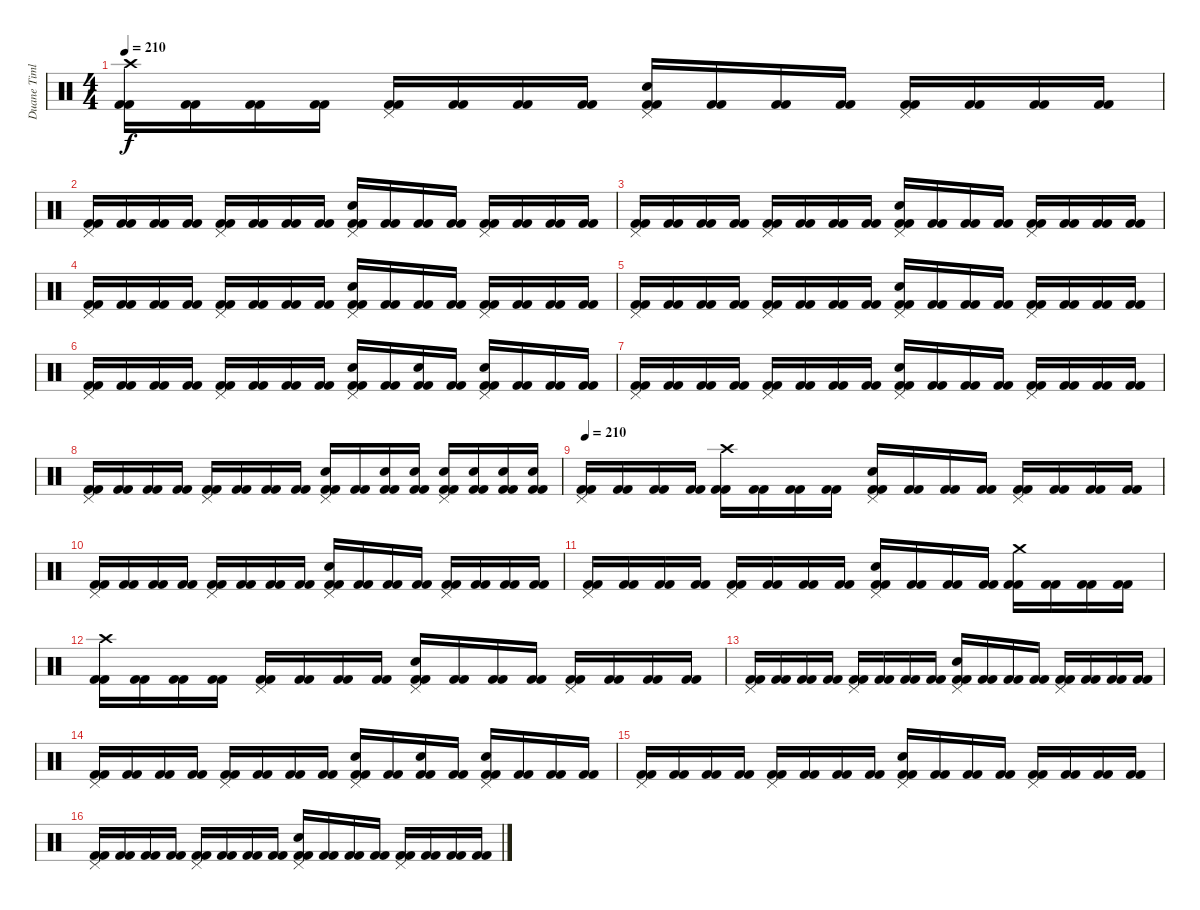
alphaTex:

\track ("Duane Timlin" "Duane Timl") {instrument percussion}
\staff {score}
\articulation defaults
\ts (4 4)
\tempo 210
\clef neutral
\ks c
("Crash high (hit)" "Kick (hit) 2" "Kick (hit) 2").16{dy f} ("Kick (hit) 2" "Kick (hit) 2").16 ("Kick (hit) 2" "Kick (hit) 2").16 ("Kick (hit) 2" "Kick (hit) 2").16 ("Pedal Hi-Hat (hit)" "Kick (hit) 2" "Kick (hit) 2").16 ("Kick (hit) 2" "Kick (hit) 2").16 ("Kick (hit) 2" "Kick (hit) 2").16 ("Kick (hit) 2" "Kick (hit) 2").16 ("Pedal Hi-Hat (hit)" "Electric Snare (hit)" "Kick (hit) 2" "Kick (hit) 2").16 ("Kick (hit) 2" "Kick (hit) 2").16 ("Kick (hit) 2" "Kick (hit) 2").16 ("Kick (hit) 2" "Kick (hit) 2").16 ("Pedal Hi-Hat (hit)" "Kick (hit) 2" "Kick (hit) 2").16 ("Kick (hit) 2" "Kick (hit) 2").16 ("Kick (hit) 2" "Kick (hit) 2").16 ("Kick (hit) 2" "Kick (hit) 2").16 |
("Pedal Hi-Hat (hit)" "Kick (hit) 2" "Kick (hit) 2").16 ("Kick (hit) 2" "Kick (hit) 2").16 ("Kick (hit) 2" "Kick (hit) 2").16 ("Kick (hit) 2" "Kick (hit) 2").16 ("Pedal Hi-Hat (hit)" "Kick (hit) 2" "Kick (hit) 2").16 ("Kick (hit) 2" "Kick (hit) 2").16 ("Kick (hit) 2" "Kick (hit) 2").16 ("Kick (hit) 2" "Kick (hit) 2").16 ("Pedal Hi-Hat (hit)" "Electric Snare (hit)" "Kick (hit) 2" "Kick (hit) 2").16 ("Kick (hit) 2" "Kick (hit) 2").16 ("Kick (hit) 2" "Kick (hit) 2").16 ("Kick (hit) 2" "Kick (hit) 2").16 ("Pedal Hi-Hat (hit)" "Kick (hit) 2" "Kick (hit) 2").16 ("Kick (hit) 2" "Kick (hit) 2").16 ("Kick (hit) 2" "Kick (hit) 2").16 ("Kick (hit) 2" "Kick (hit) 2").16 |
("Pedal Hi-Hat (hit)" "Kick (hit) 2" "Kick (hit) 2").16 ("Kick (hit) 2" "Kick (hit) 2").16 ("Kick (hit) 2" "Kick (hit) 2").16 ("Kick (hit) 2" "Kick (hit) 2").16 ("Pedal Hi-Hat (hit)" "Kick (hit) 2" "Kick (hit) 2").16 ("Kick (hit) 2" "Kick (hit) 2").16 ("Kick (hit) 2" "Kick (hit) 2").16 ("Kick (hit) 2" "Kick (hit) 2").16 ("Pedal Hi-Hat (hit)" "Electric Snare (hit)" "Kick (hit) 2" "Kick (hit) 2").16 ("Kick (hit) 2" "Kick (hit) 2").16 ("Kick (hit) 2" "Kick (hit) 2").16 ("Kick (hit) 2" "Kick (hit) 2").16 ("Pedal Hi-Hat (hit)" "Kick (hit) 2" "Kick (hit) 2").16 ("Kick (hit) 2" "Kick (hit) 2").16 ("Kick (hit) 2" "Kick (hit) 2").16 ("Kick (hit) 2" "Kick (hit) 2").16 |
("Pedal Hi-Hat (hit)" "Kick (hit) 2" "Kick (hit) 2").16 ("Kick (hit) 2" "Kick (hit) 2").16 ("Kick (hit) 2" "Kick (hit) 2").16 ("Kick (hit) 2" "Kick (hit) 2").16 ("Pedal Hi-Hat (hit)" "Kick (hit) 2" "Kick (hit) 2").16 ("Kick (hit) 2" "Kick (hit) 2").16 ("Kick (hit) 2" "Kick (hit) 2").16 ("Kick (hit) 2" "Kick (hit) 2").16 ("Pedal Hi-Hat (hit)" "Electric Snare (hit)" "Kick (hit) 2" "Kick (hit) 2").16 ("Kick (hit) 2" "Kick (hit) 2").16 ("Kick (hit) 2" "Kick (hit) 2").16 ("Kick (hit) 2" "Kick (hit) 2").16 ("Pedal Hi-Hat (hit)" "Kick (hit) 2" "Kick (hit) 2").16 ("Kick (hit) 2" "Kick (hit) 2").16 ("Kick (hit) 2" "Kick (hit) 2").16 ("Kick (hit) 2" "Kick (hit) 2").16 |
("Pedal Hi-Hat (hit)" "Kick (hit) 2" "Kick (hit) 2").16 ("Kick (hit) 2" "Kick (hit) 2").16 ("Kick (hit) 2" "Kick (hit) 2").16 ("Kick (hit) 2" "Kick (hit) 2").16 ("Pedal Hi-Hat (hit)" "Kick (hit) 2" "Kick (hit) 2").16 ("Kick (hit) 2" "Kick (hit) 2").16 ("Kick (hit) 2" "Kick (hit) 2").16 ("Kick (hit) 2" "Kick (hit) 2").16 ("Pedal Hi-Hat (hit)" "Electric Snare (hit)" "Kick (hit) 2" "Kick (hit) 2").16 ("Kick (hit) 2" "Kick (hit) 2").16 ("Kick (hit) 2" "Kick (hit) 2").16 ("Kick (hit) 2" "Kick (hit) 2").16 ("Pedal Hi-Hat (hit)" "Kick (hit) 2" "Kick (hit) 2").16 ("Kick (hit) 2" "Kick (hit) 2").16 ("Kick (hit) 2" "Kick (hit) 2").16 ("Kick (hit) 2" "Kick (hit) 2").16 |
("Pedal Hi-Hat (hit)" "Kick (hit) 2" "Kick (hit) 2").16 ("Kick (hit) 2" "Kick (hit) 2").16 ("Kick (hit) 2" "Kick (hit) 2").16 ("Kick (hit) 2" "Kick (hit) 2").16 ("Pedal Hi-Hat (hit)" "Kick (hit) 2" "Kick (hit) 2").16 ("Kick (hit) 2" "Kick (hit) 2").16 ("Kick (hit) 2" "Kick (hit) 2").16 ("Kick (hit) 2" "Kick (hit) 2").16 ("Pedal Hi-Hat (hit)" "Electric Snare (hit)" "Kick (hit) 2" "Kick (hit) 2").16 ("Kick (hit) 2" "Kick (hit) 2").16 ("Electric Snare (hit)" "Kick (hit) 2" "Kick (hit) 2").16 ("Kick (hit) 2" "Kick (hit) 2").16 ("Pedal Hi-Hat (hit)" "Electric Snare (hit)" "Kick (hit) 2" "Kick (hit) 2").16 ("Kick (hit) 2" "Kick (hit) 2").16 ("Kick (hit) 2" "Kick (hit) 2").16 ("Kick (hit) 2" "Kick (hit) 2").16 |
("Pedal Hi-Hat (hit)" "Kick (hit) 2" "Kick (hit) 2").16 ("Kick (hit) 2" "Kick (hit) 2").16 ("Kick (hit) 2" "Kick (hit) 2").16 ("Kick (hit) 2" "Kick (hit) 2").16 ("Pedal Hi-Hat (hit)" "Kick (hit) 2" "Kick (hit) 2").16 ("Kick (hit) 2" "Kick (hit) 2").16 ("Kick (hit) 2" "Kick (hit) 2").16 ("Kick (hit) 2" "Kick (hit) 2").16 ("Pedal Hi-Hat (hit)" "Electric Snare (hit)" "Kick (hit) 2" "Kick (hit) 2").16 ("Kick (hit) 2" "Kick (hit) 2").16 ("Kick (hit) 2" "Kick (hit) 2").16 ("Kick (hit) 2" "Kick (hit) 2").16 ("Pedal Hi-Hat (hit)" "Kick (hit) 2" "Kick (hit) 2").16 ("Kick (hit) 2" "Kick (hit) 2").16 ("Kick (hit) 2" "Kick (hit) 2").16 ("Kick (hit) 2" "Kick (hit) 2").16 |
("Pedal Hi-Hat (hit)" "Kick (hit) 2" "Kick (hit) 2").16 ("Kick (hit) 2" "Kick (hit) 2").16 ("Kick (hit) 2" "Kick (hit) 2").16 ("Kick (hit) 2" "Kick (hit) 2").16 ("Pedal Hi-Hat (hit)" "Kick (hit) 2" "Kick (hit) 2").16 ("Kick (hit) 2" "Kick (hit) 2").16 ("Kick (hit) 2" "Kick (hit) 2").16 ("Kick (hit) 2" "Kick (hit) 2").16 ("Pedal Hi-Hat (hit)" "Electric Snare (hit)" "Kick (hit) 2" "Kick (hit) 2").16 ("Kick (hit) 2" "Kick (hit) 2").16 ("Electric Snare (hit)" "Kick (hit) 2" "Kick (hit) 2").16 ("Electric Snare (hit)" "Kick (hit) 2" "Kick (hit) 2").16 ("Pedal Hi-Hat (hit)" "Electric Snare (hit)" "Kick (hit) 2" "Kick (hit) 2").16 ("Electric Snare (hit)" "Kick (hit) 2" "Kick (hit) 2").16 ("Electric Snare (hit)" "Kick (hit) 2" "Kick (hit) 2").16 ("Electric Snare (hit)" "Kick (hit) 2" "Kick (hit) 2").16 |
\tempo 210
("Pedal Hi-Hat (hit)" "Kick (hit) 2" "Kick (hit) 2").16 ("Kick (hit) 2" "Kick (hit) 2").16 ("Kick (hit) 2" "Kick (hit) 2").16 ("Kick (hit) 2" "Kick (hit) 2").16 ("Crash high (hit)" "Kick (hit) 2" "Kick (hit) 2").16 ("Kick (hit) 2" "Kick (hit) 2").16 ("Kick (hit) 2" "Kick (hit) 2").16 ("Kick (hit) 2" "Kick (hit) 2").16 ("Pedal Hi-Hat (hit)" "Electric Snare (hit)" "Kick (hit) 2" "Kick (hit) 2").16 ("Kick (hit) 2" "Kick (hit) 2").16 ("Kick (hit) 2" "Kick (hit) 2").16 ("Kick (hit) 2" "Kick (hit) 2").16 ("Pedal Hi-Hat (hit)" "Kick (hit) 2" "Kick (hit) 2").16 ("Kick (hit) 2" "Kick (hit) 2").16 ("Kick (hit) 2" "Kick (hit) 2").16 ("Kick (hit) 2" "Kick (hit) 2").16 |
("Pedal Hi-Hat (hit)" "Kick (hit) 2" "Kick (hit) 2").16 ("Kick (hit) 2" "Kick (hit) 2").16 ("Kick (hit) 2" "Kick (hit) 2").16 ("Kick (hit) 2" "Kick (hit) 2").16 ("Pedal Hi-Hat (hit)" "Kick (hit) 2" "Kick (hit) 2").16 ("Kick (hit) 2" "Kick (hit) 2").16 ("Kick (hit) 2" "Kick (hit) 2").16 ("Kick (hit) 2" "Kick (hit) 2").16 ("Pedal Hi-Hat (hit)" "Electric Snare (hit)" "Kick (hit) 2" "Kick (hit) 2").16 ("Kick (hit) 2" "Kick (hit) 2").16 ("Kick (hit) 2" "Kick (hit) 2").16 ("Kick (hit) 2" "Kick (hit) 2").16 ("Pedal Hi-Hat (hit)" "Kick (hit) 2" "Kick (hit) 2").16 ("Kick (hit) 2" "Kick (hit) 2").16 ("Kick (hit) 2" "Kick (hit) 2").16 ("Kick (hit) 2" "Kick (hit) 2").16 |
("Pedal Hi-Hat (hit)" "Kick (hit) 2" "Kick (hit) 2").16 ("Kick (hit) 2" "Kick (hit) 2").16 ("Kick (hit) 2" "Kick (hit) 2").16 ("Kick (hit) 2" "Kick (hit) 2").16 ("Pedal Hi-Hat (hit)" "Kick (hit) 2" "Kick (hit) 2").16 ("Kick (hit) 2" "Kick (hit) 2").16 ("Kick (hit) 2" "Kick (hit) 2").16 ("Kick (hit) 2" "Kick (hit) 2").16 ("Pedal Hi-Hat (hit)" "Electric Snare (hit)" "Kick (hit) 2" "Kick (hit) 2").16 ("Kick (hit) 2" "Kick (hit) 2").16 ("Kick (hit) 2" "Kick (hit) 2").16 ("Kick (hit) 2" "Kick (hit) 2").16 ("Crash medium (hit)" "Kick (hit) 2" "Kick (hit) 2").16 ("Kick (hit) 2" "Kick (hit) 2").16 ("Kick (hit) 2" "Kick (hit) 2").16 ("Kick (hit) 2" "Kick (hit) 2").16 |
("Crash high (hit)" "Kick (hit) 2" "Kick (hit) 2").16 ("Kick (hit) 2" "Kick (hit) 2").16 ("Kick (hit) 2" "Kick (hit) 2").16 ("Kick (hit) 2" "Kick (hit) 2").16 ("Pedal Hi-Hat (hit)" "Kick (hit) 2" "Kick (hit) 2").16 ("Kick (hit) 2" "Kick (hit) 2").16 ("Kick (hit) 2" "Kick (hit) 2").16 ("Kick (hit) 2" "Kick (hit) 2").16 ("Pedal Hi-Hat (hit)" "Electric Snare (hit)" "Kick (hit) 2" "Kick (hit) 2").16 ("Kick (hit) 2" "Kick (hit) 2").16 ("Kick (hit) 2" "Kick (hit) 2").16 ("Kick (hit) 2" "Kick (hit) 2").16 ("Pedal Hi-Hat (hit)" "Kick (hit) 2" "Kick (hit) 2").16 ("Kick (hit) 2" "Kick (hit) 2").16 ("Kick (hit) 2" "Kick (hit) 2").16 ("Kick (hit) 2" "Kick (hit) 2").16 |
("Pedal Hi-Hat (hit)" "Kick (hit) 2" "Kick (hit) 2").16 ("Kick (hit) 2" "Kick (hit) 2").16 ("Kick (hit) 2" "Kick (hit) 2").16 ("Kick (hit) 2" "Kick (hit) 2").16 ("Pedal Hi-Hat (hit)" "Kick (hit) 2" "Kick (hit) 2").16 ("Kick (hit) 2" "Kick (hit) 2").16 ("Kick (hit) 2" "Kick (hit) 2").16 ("Kick (hit) 2" "Kick (hit) 2").16 ("Pedal Hi-Hat (hit)" "Electric Snare (hit)" "Kick (hit) 2" "Kick (hit) 2").16 ("Kick (hit) 2" "Kick (hit) 2").16 ("Kick (hit) 2" "Kick (hit) 2").16 ("Kick (hit) 2" "Kick (hit) 2").16 ("Pedal Hi-Hat (hit)" "Kick (hit) 2" "Kick (hit) 2").16 ("Kick (hit) 2" "Kick (hit) 2").16 ("Kick (hit) 2" "Kick (hit) 2").16 ("Kick (hit) 2" "Kick (hit) 2").16 |
("Pedal Hi-Hat (hit)" "Kick (hit) 2" "Kick (hit) 2").16 ("Kick (hit) 2" "Kick (hit) 2").16 ("Kick (hit) 2" "Kick (hit) 2").16 ("Kick (hit) 2" "Kick (hit) 2").16 ("Pedal Hi-Hat (hit)" "Kick (hit) 2" "Kick (hit) 2").16 ("Kick (hit) 2" "Kick (hit) 2").16 ("Kick (hit) 2" "Kick (hit) 2").16 ("Kick (hit) 2" "Kick (hit) 2").16 ("Pedal Hi-Hat (hit)" "Electric Snare (hit)" "Kick (hit) 2" "Kick (hit) 2").16 ("Kick (hit) 2" "Kick (hit) 2").16 ("Electric Snare (hit)" "Kick (hit) 2" "Kick (hit) 2").16 ("Kick (hit) 2" "Kick (hit) 2").16 ("Pedal Hi-Hat (hit)" "Electric Snare (hit)" "Kick (hit) 2" "Kick (hit) 2").16 ("Kick (hit) 2" "Kick (hit) 2").16 ("Kick (hit) 2" "Kick (hit) 2").16 ("Kick (hit) 2" "Kick (hit) 2").16 |
("Pedal Hi-Hat (hit)" "Kick (hit) 2" "Kick (hit) 2").16 ("Kick (hit) 2" "Kick (hit) 2").16 ("Kick (hit) 2" "Kick (hit) 2").16 ("Kick (hit) 2" "Kick (hit) 2").16 ("Pedal Hi-Hat (hit)" "Kick (hit) 2" "Kick (hit) 2").16 ("Kick (hit) 2" "Kick (hit) 2").16 ("Kick (hit) 2" "Kick (hit) 2").16 ("Kick (hit) 2" "Kick (hit) 2").16 ("Pedal Hi-Hat (hit)" "Electric Snare (hit)" "Kick (hit) 2" "Kick (hit) 2").16 ("Kick (hit) 2" "Kick (hit) 2").16 ("Kick (hit) 2" "Kick (hit) 2").16 ("Kick (hit) 2" "Kick (hit) 2").16 ("Pedal Hi-Hat (hit)" "Kick (hit) 2" "Kick (hit) 2").16 ("Kick (hit) 2" "Kick (hit) 2").16 ("Kick (hit) 2" "Kick (hit) 2").16 ("Kick (hit) 2" "Kick (hit) 2").16 |
("Pedal Hi-Hat (hit)" "Kick (hit) 2" "Kick (hit) 2").16 ("Kick (hit) 2" "Kick (hit) 2").16 ("Kick (hit) 2" "Kick (hit) 2").16 ("Kick (hit) 2" "Kick (hit) 2").16 ("Pedal Hi-Hat (hit)" "Kick (hit) 2" "Kick (hit) 2").16 ("Kick (hit) 2" "Kick (hit) 2").16 ("Kick (hit) 2" "Kick (hit) 2").16 ("Kick (hit) 2" "Kick (hit) 2").16 ("Pedal Hi-Hat (hit)" "Electric Snare (hit)" "Kick (hit) 2" "Kick (hit) 2").16 ("Kick (hit) 2" "Kick (hit) 2").16 ("Kick (hit) 2" "Kick (hit) 2").16 ("Kick (hit) 2" "Kick (hit) 2").16 ("Pedal Hi-Hat (hit)" "Kick (hit) 2" "Kick (hit) 2").16 ("Kick (hit) 2" "Kick (hit) 2").16 ("Kick (hit) 2" "Kick (hit) 2").16 ("Kick (hit) 2" "Kick (hit) 2").16
